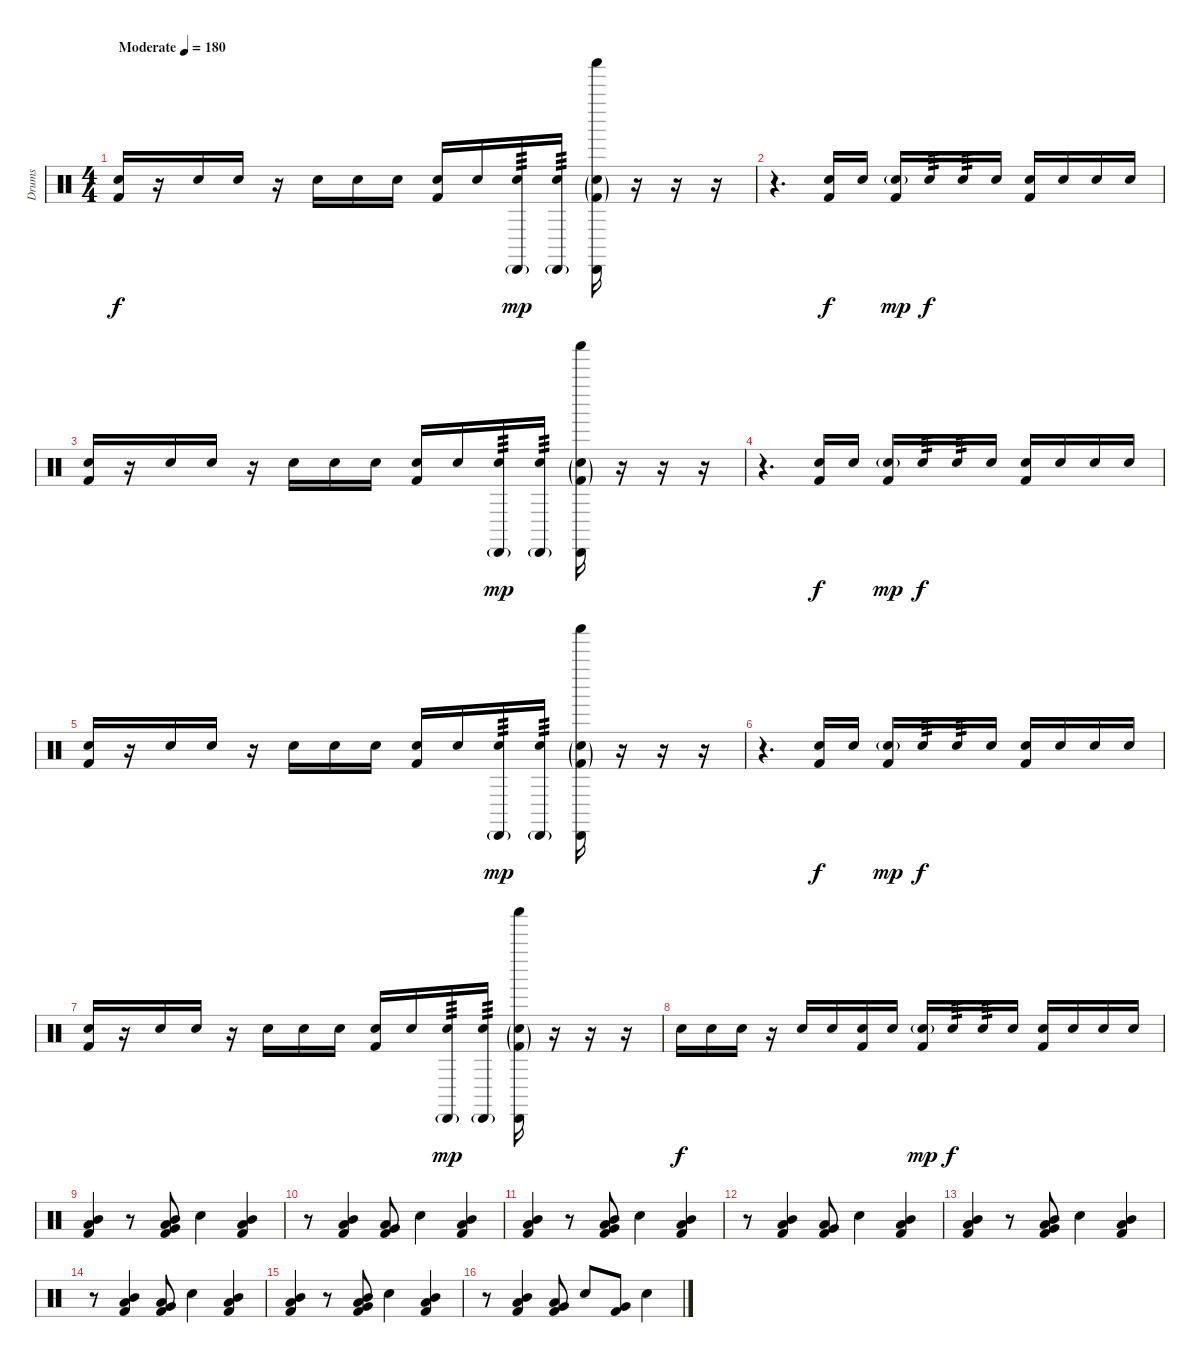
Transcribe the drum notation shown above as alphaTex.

\track ("Drums" "Drums") {instrument percussion}
\staff {score}
\articulation defaults
\ts (4 4)
\tempo (180 "Moderate")
\clef neutral
\ks c
("Snare (hit) 2" "Kick (hit) 2").16{dy f balance 16} r.16{balance 0} "Snare (hit) 2".16 "Snare (hit) 2".16 r.16 "Snare (hit) 2".16 "Snare (hit) 2".16 "Snare (hit) 2".16 ("Snare (hit) 2" "Kick (hit) 2").16{balance 16} "Snare (hit) 2".16{balance 0} ("Snare (hit) 2" "Cabasa (hit)"{g}).16{tp 3 dy mp} ("Snare (hit) 2" "Cabasa (hit)"{g}).16{tp 3} ("Shaker (hit)" "Cabasa (hit)" "Snare (hit) 2"{g} "Kick (hit) 2"{g}).16 r.16 r.16 r.16 |
r.4{d} ("Snare (hit) 2" "Kick (hit) 2").16{dy f balance 16} "Snare (hit) 2".16{balance 0} ("Electric Snare (hit)"{g} "Kick (hit) 2").16{dy mp balance 16} "Snare (hit) 2".16{tp 3 dy f balance 0} "Snare (hit) 2".16{tp 3} "Snare (hit) 2".16 ("Snare (hit) 2" "Kick (hit) 2").16{balance 16} "Snare (hit) 2".16{balance 0} "Snare (hit) 2".16 "Snare (hit) 2".16 |
("Snare (hit) 2" "Kick (hit) 2").16{balance 16} r.16{balance 0} "Snare (hit) 2".16 "Snare (hit) 2".16 r.16 "Snare (hit) 2".16 "Snare (hit) 2".16 "Snare (hit) 2".16 ("Snare (hit) 2" "Kick (hit) 2").16{balance 16} "Snare (hit) 2".16{balance 0} ("Snare (hit) 2" "Cabasa (hit)"{g}).16{tp 3 dy mp} ("Snare (hit) 2" "Cabasa (hit)"{g}).16{tp 3} ("Shaker (hit)" "Cabasa (hit)" "Snare (hit) 2"{g} "Kick (hit) 2"{g}).16 r.16 r.16 r.16 |
r.4{d} ("Snare (hit) 2" "Kick (hit) 2").16{dy f balance 16} "Snare (hit) 2".16{balance 0} ("Electric Snare (hit)"{g} "Kick (hit) 2").16{dy mp balance 16} "Snare (hit) 2".16{tp 3 dy f balance 0} "Snare (hit) 2".16{tp 3} "Snare (hit) 2".16 ("Snare (hit) 2" "Kick (hit) 2").16{balance 16} "Snare (hit) 2".16{balance 0} "Snare (hit) 2".16 "Snare (hit) 2".16 |
("Snare (hit) 2" "Kick (hit) 2").16{balance 16} r.16{balance 0} "Snare (hit) 2".16 "Snare (hit) 2".16 r.16 "Snare (hit) 2".16 "Snare (hit) 2".16 "Snare (hit) 2".16 ("Snare (hit) 2" "Kick (hit) 2").16{balance 16} "Snare (hit) 2".16{balance 0} ("Snare (hit) 2" "Cabasa (hit)"{g}).16{tp 3 dy mp} ("Snare (hit) 2" "Cabasa (hit)"{g}).16{tp 3} ("Shaker (hit)" "Cabasa (hit)" "Snare (hit) 2"{g} "Kick (hit) 2"{g}).16 r.16 r.16 r.16 |
r.4{d} ("Snare (hit) 2" "Kick (hit) 2").16{dy f balance 16} "Snare (hit) 2".16{balance 0} ("Electric Snare (hit)"{g} "Kick (hit) 2").16{dy mp balance 16} "Snare (hit) 2".16{tp 3 dy f balance 0} "Snare (hit) 2".16{tp 3} "Snare (hit) 2".16 ("Snare (hit) 2" "Kick (hit) 2").16{balance 16} "Snare (hit) 2".16{balance 0} "Snare (hit) 2".16 "Snare (hit) 2".16 |
("Snare (hit) 2" "Kick (hit) 2").16{balance 16} r.16{balance 0} "Snare (hit) 2".16 "Snare (hit) 2".16 r.16 "Snare (hit) 2".16 "Snare (hit) 2".16 "Snare (hit) 2".16 ("Snare (hit) 2" "Kick (hit) 2").16{balance 16} "Snare (hit) 2".16{balance 0} ("Snare (hit) 2" "Cabasa (hit)"{g}).16{tp 3 dy mp} ("Snare (hit) 2" "Cabasa (hit)"{g}).16{tp 3} ("Shaker (hit)" "Cabasa (hit)" "Snare (hit) 2"{g} "Kick (hit) 2"{g}).16 r.16 r.16 r.16 |
"Snare (hit) 2".16{dy f} "Snare (hit) 2".16 "Snare (hit) 2".16 r.16 "Snare (hit) 2".16 "Snare (hit) 2".16 ("Snare (hit) 2" "Kick (hit) 2").16{balance 16} "Snare (hit) 2".16 ("Electric Snare (hit)"{g} "Kick (hit) 2").16{dy mp balance 16} "Snare (hit) 2".16{tp 3 dy f balance 0} "Snare (hit) 2".16{tp 3} "Snare (hit) 2".16 ("Snare (hit) 2" "Kick (hit) 2").16{balance 16} "Snare (hit) 2".16{balance 0} "Snare (hit) 2".16 "Snare (hit) 2".16 |
("Mid Tom (hit)" "Low Tom (hit)" "Kick (hit) 2").4{volume 11 balance 8} r.8 ("Mid Tom (hit)" "Low Tom (hit)" "Very Low Tom (hit)" "Kick (hit) 2").8 "Electric Snare (hit)".4 ("Mid Tom (hit)" "Low Tom (hit)" "Kick (hit) 2").4 |
r.8 ("Mid Tom (hit)" "Low Tom (hit)" "Kick (hit) 2").4 ("Low Tom (hit)" "Very Low Tom (hit)" "Kick (hit) 2").8 "Electric Snare (hit)".4 ("Mid Tom (hit)" "Low Tom (hit)" "Kick (hit) 2").4 |
("Mid Tom (hit)" "Low Tom (hit)" "Kick (hit) 2").4 r.8 ("Mid Tom (hit)" "Low Tom (hit)" "Very Low Tom (hit)" "Kick (hit) 2").8 "Electric Snare (hit)".4 ("Mid Tom (hit)" "Low Tom (hit)" "Kick (hit) 2").4 |
r.8 ("Mid Tom (hit)" "Low Tom (hit)" "Kick (hit) 2").4 ("Low Tom (hit)" "Very Low Tom (hit)" "Kick (hit) 2").8 "Electric Snare (hit)".4 ("Mid Tom (hit)" "Low Tom (hit)" "Kick (hit) 2").4 |
("Mid Tom (hit)" "Low Tom (hit)" "Kick (hit) 2").4 r.8 ("Mid Tom (hit)" "Low Tom (hit)" "Very Low Tom (hit)" "Kick (hit) 2").8 "Electric Snare (hit)".4 ("Mid Tom (hit)" "Low Tom (hit)" "Kick (hit) 2").4 |
r.8 ("Mid Tom (hit)" "Low Tom (hit)" "Kick (hit) 2").4 ("Low Tom (hit)" "Very Low Tom (hit)" "Kick (hit) 2").8 "Electric Snare (hit)".4 ("Mid Tom (hit)" "Low Tom (hit)" "Kick (hit) 2").4 |
("Mid Tom (hit)" "Low Tom (hit)" "Kick (hit) 2").4 r.8 ("Mid Tom (hit)" "Low Tom (hit)" "Very Low Tom (hit)" "Kick (hit) 2").8 "Electric Snare (hit)".4 ("Mid Tom (hit)" "Low Tom (hit)" "Kick (hit) 2").4 |
r.8 ("Mid Tom (hit)" "Low Tom (hit)" "Kick (hit) 2").4 ("Low Tom (hit)" "Very Low Tom (hit)" "Kick (hit) 2").8 "Electric Snare (hit)".8 ("Very Low Tom (hit)" "Kick (hit) 2").8 "Electric Snare (hit)".4
